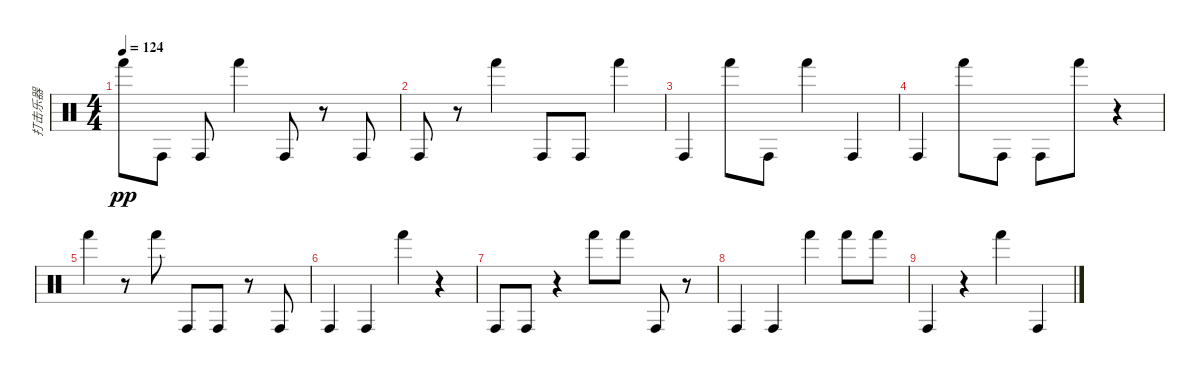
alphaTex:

\track ("打击乐器" "打击乐器") {instrument percussion}
\staff {score}
\articulation defaults
\ts (4 4)
\tempo 124
\clef neutral
\ks c "Hand (hit)".8{dy pp} "Conga high (hit)".8 "Conga high (hit)".8 "Hand (hit)".4 "Conga high (hit)".8
r.8 "Conga high (hit)".8 |
"Conga high (hit)".8 r.8 "Hand (hit)".4 "Conga high (hit)".8 "Conga high (hit)".8 "Hand (hit)".4 |
"Conga high (hit)".4 "Hand (hit)".8 "Conga high (hit)".8 "Hand (hit)".4 "Conga high (hit)".4 |
"Conga high (hit)".4 "Hand (hit)".8 "Conga high (hit)".8 "Conga high (hit)".8 "Hand (hit)".8 r.4 |
"Hand (hit)".4 r.8 "Hand (hit)".8 "Conga high (hit)".8 "Conga high (hit)".8 r.8 "Conga high (hit)".8 |
"Conga high (hit)".4 "Conga high (hit)".4 "Hand (hit)".4 r.4 |
"Conga high (hit)".8 "Conga high (hit)".8 r.4 "Hand (hit)".8 "Hand (hit)".8 "Conga high (hit)".8 r.8 |
"Conga high (hit)".4 "Conga high (hit)".4 "Hand (hit)".4 "Hand (hit)".8 "Hand (hit)".8 |
"Conga high (hit)".4 r.4 "Hand (hit)".4 "Conga high (hit)".4
